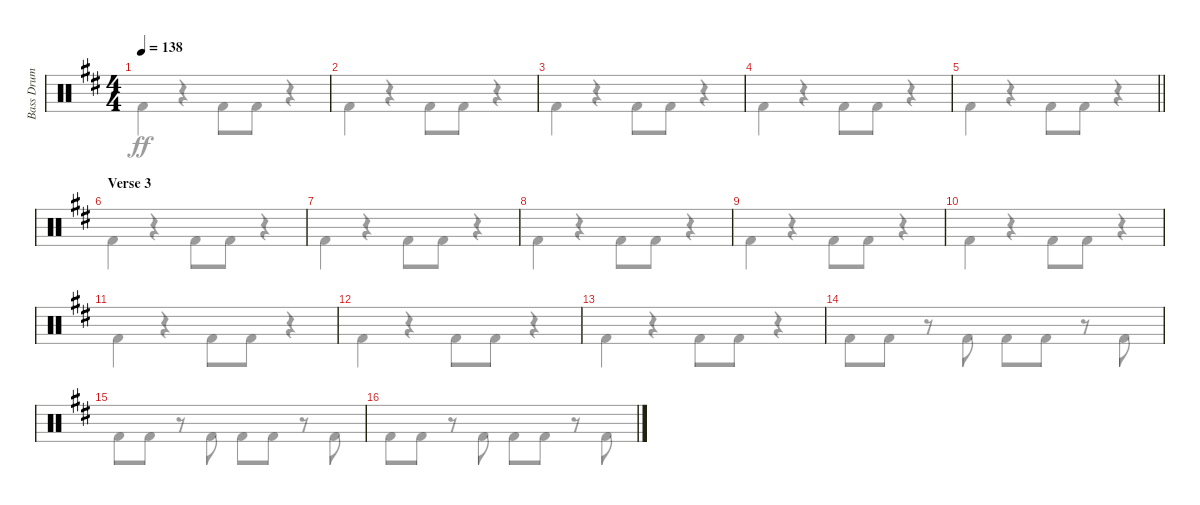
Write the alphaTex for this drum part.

\track ("Bass Drum" "Bass Drum") {instrument percussion}
\staff {score}
\articulation defaults
\voice
\ts (4 4)
\tempo 138
\clef neutral
\ks d
|
|
|
|
\barLineRight lightlight
|
\section ("" "Verse 3")
|
|
|
|
|
|
|
|
|
|
\voice
\clef neutral
\ks d "Kick (hit) 2".4{dy ff}
r.4 "Kick (hit) 2".8 "Kick (hit) 2".8 r.4 |
"Kick (hit) 2".4 r.4 "Kick (hit) 2".8 "Kick (hit) 2".8 r.4 |
"Kick (hit) 2".4 r.4 "Kick (hit) 2".8 "Kick (hit) 2".8 r.4 |
"Kick (hit) 2".4 r.4 "Kick (hit) 2".8 "Kick (hit) 2".8 r.4 |
\barLineRight lightlight "Kick (hit) 2".4
r.4 "Kick (hit) 2".8 "Kick (hit) 2".8 r.4 |
"Kick (hit) 2".4 r.4 "Kick (hit) 2".8 "Kick (hit) 2".8 r.4 |
"Kick (hit) 2".4 r.4 "Kick (hit) 2".8 "Kick (hit) 2".8 r.4 |
"Kick (hit) 2".4 r.4 "Kick (hit) 2".8 "Kick (hit) 2".8 r.4 |
"Kick (hit) 2".4 r.4 "Kick (hit) 2".8 "Kick (hit) 2".8 r.4 |
"Kick (hit) 2".4 r.4 "Kick (hit) 2".8 "Kick (hit) 2".8 r.4 |
"Kick (hit) 2".4 r.4 "Kick (hit) 2".8 "Kick (hit) 2".8 r.4 |
"Kick (hit) 2".4 r.4 "Kick (hit) 2".8 "Kick (hit) 2".8 r.4 |
"Kick (hit) 2".4 r.4 "Kick (hit) 2".8 "Kick (hit) 2".8 r.4 |
"Kick (hit) 2".8 "Kick (hit) 2".8 r.8 "Kick (hit) 2".8 "Kick (hit) 2".8 "Kick (hit) 2".8 r.8 "Kick (hit) 2".8 |
"Kick (hit) 2".8 "Kick (hit) 2".8 r.8 "Kick (hit) 2".8 "Kick (hit) 2".8 "Kick (hit) 2".8 r.8 "Kick (hit) 2".8 |
"Kick (hit) 2".8 "Kick (hit) 2".8 r.8 "Kick (hit) 2".8 "Kick (hit) 2".8 "Kick (hit) 2".8 r.8 "Kick (hit) 2".8
